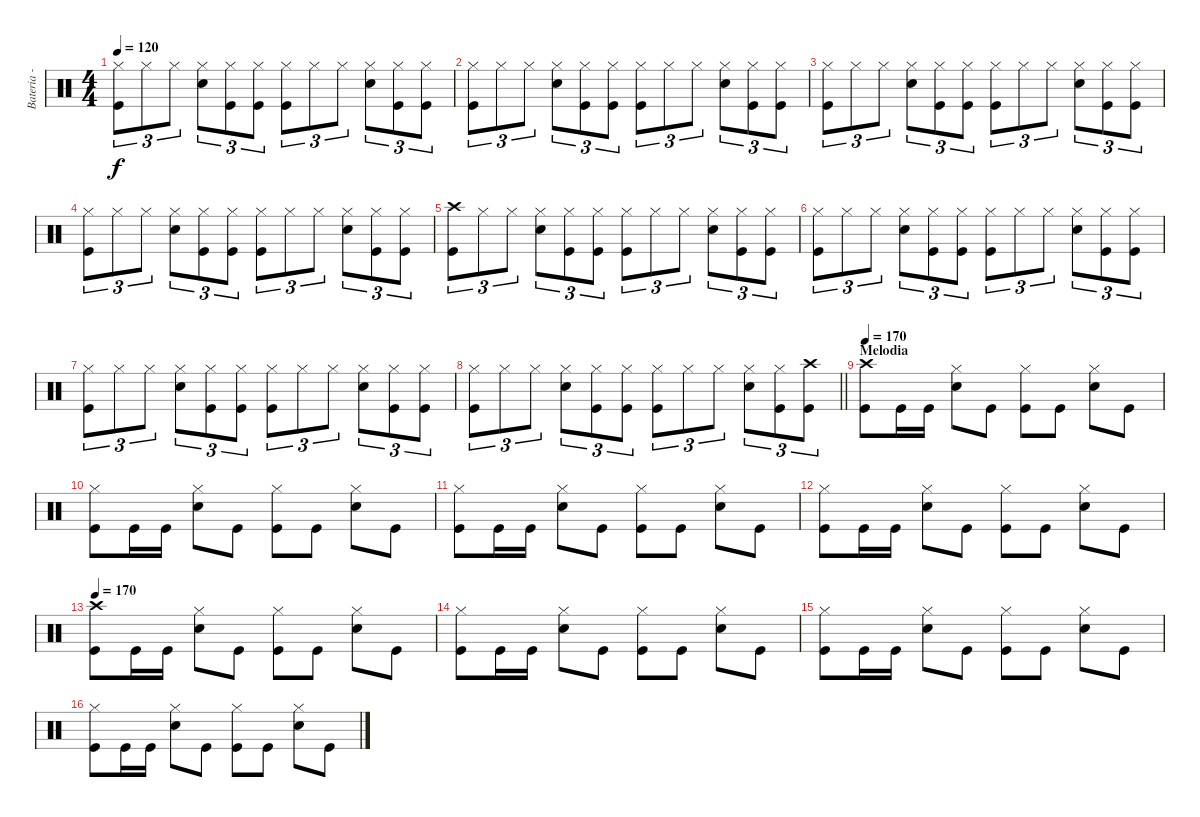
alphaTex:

\track ("Bateria - Joaquin" "Bateria - ") {instrument percussion}
\staff {score}
\articulation defaults
\ts (4 4)
\tempo 120
\clef neutral
\ks c
("Hi-Hat (closed)" "Kick (hit)").8{tu (3 2) dy f} "Hi-Hat (closed)".8{tu (3 2)} "Hi-Hat (closed)".8{tu (3 2)} ("Hi-Hat (closed)" "Snare (hit) 2").8{tu (3 2)} ("Hi-Hat (closed)" "Kick (hit)").8{tu (3 2)} ("Hi-Hat (closed)" "Kick (hit)").8{tu (3 2)} ("Hi-Hat (closed)" "Kick (hit)").8{tu (3 2)} "Hi-Hat (closed)".8{tu (3 2)} "Hi-Hat (closed)".8{tu (3 2)} ("Hi-Hat (closed)" "Snare (hit) 2").8{tu (3 2)} ("Hi-Hat (closed)" "Kick (hit)").8{tu (3 2)} ("Hi-Hat (closed)" "Kick (hit)").8{tu (3 2)} |
("Hi-Hat (closed)" "Kick (hit)").8{tu (3 2)} "Hi-Hat (closed)".8{tu (3 2)} "Hi-Hat (closed)".8{tu (3 2)} ("Hi-Hat (closed)" "Snare (hit) 2").8{tu (3 2)} ("Hi-Hat (closed)" "Kick (hit)").8{tu (3 2)} ("Hi-Hat (closed)" "Kick (hit)").8{tu (3 2)} ("Hi-Hat (closed)" "Kick (hit)").8{tu (3 2)} "Hi-Hat (closed)".8{tu (3 2)} "Hi-Hat (closed)".8{tu (3 2)} ("Hi-Hat (closed)" "Snare (hit) 2").8{tu (3 2)} ("Hi-Hat (closed)" "Kick (hit)").8{tu (3 2)} ("Hi-Hat (closed)" "Kick (hit)").8{tu (3 2)} |
("Hi-Hat (closed)" "Kick (hit)").8{tu (3 2)} "Hi-Hat (closed)".8{tu (3 2)} "Hi-Hat (closed)".8{tu (3 2)} ("Hi-Hat (closed)" "Snare (hit) 2").8{tu (3 2)} ("Hi-Hat (closed)" "Kick (hit)").8{tu (3 2)} ("Hi-Hat (closed)" "Kick (hit)").8{tu (3 2)} ("Hi-Hat (closed)" "Kick (hit)").8{tu (3 2)} "Hi-Hat (closed)".8{tu (3 2)} "Hi-Hat (closed)".8{tu (3 2)} ("Hi-Hat (closed)" "Snare (hit) 2").8{tu (3 2)} ("Hi-Hat (closed)" "Kick (hit)").8{tu (3 2)} ("Hi-Hat (closed)" "Kick (hit)").8{tu (3 2)} |
("Hi-Hat (closed)" "Kick (hit)").8{tu (3 2)} "Hi-Hat (closed)".8{tu (3 2)} "Hi-Hat (closed)".8{tu (3 2)} ("Hi-Hat (closed)" "Snare (hit) 2").8{tu (3 2)} ("Hi-Hat (closed)" "Kick (hit)").8{tu (3 2)} ("Hi-Hat (closed)" "Kick (hit)").8{tu (3 2)} ("Hi-Hat (closed)" "Kick (hit)").8{tu (3 2)} "Hi-Hat (closed)".8{tu (3 2)} "Hi-Hat (closed)".8{tu (3 2)} ("Hi-Hat (closed)" "Snare (hit) 2").8{tu (3 2)} ("Hi-Hat (closed)" "Kick (hit)").8{tu (3 2)} ("Hi-Hat (closed)" "Kick (hit)").8{tu (3 2)} |
("Crash high (hit)" "Kick (hit)").8{tu (3 2)} "Hi-Hat (closed)".8{tu (3 2)} "Hi-Hat (closed)".8{tu (3 2)} ("Hi-Hat (closed)" "Snare (hit) 2").8{tu (3 2)} ("Hi-Hat (closed)" "Kick (hit)").8{tu (3 2)} ("Hi-Hat (closed)" "Kick (hit)").8{tu (3 2)} ("Hi-Hat (closed)" "Kick (hit)").8{tu (3 2)} "Hi-Hat (closed)".8{tu (3 2)} "Hi-Hat (closed)".8{tu (3 2)} ("Hi-Hat (closed)" "Snare (hit) 2").8{tu (3 2)} ("Hi-Hat (closed)" "Kick (hit)").8{tu (3 2)} ("Hi-Hat (closed)" "Kick (hit)").8{tu (3 2)} |
("Hi-Hat (closed)" "Kick (hit)").8{tu (3 2)} "Hi-Hat (closed)".8{tu (3 2)} "Hi-Hat (closed)".8{tu (3 2)} ("Hi-Hat (closed)" "Snare (hit) 2").8{tu (3 2)} ("Hi-Hat (closed)" "Kick (hit)").8{tu (3 2)} ("Hi-Hat (closed)" "Kick (hit)").8{tu (3 2)} ("Hi-Hat (closed)" "Kick (hit)").8{tu (3 2)} "Hi-Hat (closed)".8{tu (3 2)} "Hi-Hat (closed)".8{tu (3 2)} ("Hi-Hat (closed)" "Snare (hit) 2").8{tu (3 2)} ("Hi-Hat (closed)" "Kick (hit)").8{tu (3 2)} ("Hi-Hat (closed)" "Kick (hit)").8{tu (3 2)} |
("Hi-Hat (closed)" "Kick (hit)").8{tu (3 2)} "Hi-Hat (closed)".8{tu (3 2)} "Hi-Hat (closed)".8{tu (3 2)} ("Hi-Hat (closed)" "Snare (hit) 2").8{tu (3 2)} ("Hi-Hat (closed)" "Kick (hit)").8{tu (3 2)} ("Hi-Hat (closed)" "Kick (hit)").8{tu (3 2)} ("Hi-Hat (closed)" "Kick (hit)").8{tu (3 2)} "Hi-Hat (closed)".8{tu (3 2)} "Hi-Hat (closed)".8{tu (3 2)} ("Hi-Hat (closed)" "Snare (hit) 2").8{tu (3 2)} ("Hi-Hat (closed)" "Kick (hit)").8{tu (3 2)} ("Hi-Hat (closed)" "Kick (hit)").8{tu (3 2)} |
\barLineRight lightlight
("Hi-Hat (closed)" "Kick (hit)").8{tu (3 2)} "Hi-Hat (closed)".8{tu (3 2)} "Hi-Hat (closed)".8{tu (3 2)} ("Hi-Hat (closed)" "Snare (hit) 2").8{tu (3 2)} ("Hi-Hat (closed)" "Kick (hit)").8{tu (3 2)} ("Hi-Hat (closed)" "Kick (hit)").8{tu (3 2)} ("Hi-Hat (closed)" "Kick (hit)").8{tu (3 2)} "Hi-Hat (closed)".8{tu (3 2)} "Hi-Hat (closed)".8{tu (3 2)} ("Hi-Hat (closed)" "Snare (hit) 2").8{tu (3 2)} ("Hi-Hat (closed)" "Kick (hit)").8{tu (3 2)} ("Crash high (hit)" "Kick (hit)").8{tu (3 2)} |
\section ("" "Melodia")
\tempo 170
("Crash high (hit)" "Kick (hit)").8 "Kick (hit)".16 "Kick (hit)".16 ("Hi-Hat (closed)" "Snare (hit) 2").8 "Kick (hit)".8 ("Hi-Hat (closed)" "Kick (hit)").8 "Kick (hit)".8 ("Hi-Hat (closed)" "Snare (hit) 2").8 "Kick (hit)".8 |
("Hi-Hat (closed)" "Kick (hit)").8 "Kick (hit)".16 "Kick (hit)".16 ("Hi-Hat (closed)" "Snare (hit) 2").8 "Kick (hit)".8 ("Hi-Hat (closed)" "Kick (hit)").8 "Kick (hit)".8 ("Hi-Hat (closed)" "Snare (hit) 2").8 "Kick (hit)".8 |
("Hi-Hat (closed)" "Kick (hit)").8 "Kick (hit)".16 "Kick (hit)".16 ("Hi-Hat (closed)" "Snare (hit) 2").8 "Kick (hit)".8 ("Hi-Hat (closed)" "Kick (hit)").8 "Kick (hit)".8 ("Hi-Hat (closed)" "Snare (hit) 2").8 "Kick (hit)".8 |
("Hi-Hat (closed)" "Kick (hit)").8 "Kick (hit)".16 "Kick (hit)".16 ("Hi-Hat (closed)" "Snare (hit) 2").8 "Kick (hit)".8 ("Hi-Hat (closed)" "Kick (hit)").8 "Kick (hit)".8 ("Hi-Hat (closed)" "Snare (hit) 2").8 "Kick (hit)".8 |
\tempo 170
("Crash high (hit)" "Kick (hit)").8 "Kick (hit)".16 "Kick (hit)".16 ("Hi-Hat (closed)" "Snare (hit) 2").8 "Kick (hit)".8 ("Hi-Hat (closed)" "Kick (hit)").8 "Kick (hit)".8 ("Hi-Hat (closed)" "Snare (hit) 2").8 "Kick (hit)".8 |
("Hi-Hat (closed)" "Kick (hit)").8 "Kick (hit)".16 "Kick (hit)".16 ("Hi-Hat (closed)" "Snare (hit) 2").8 "Kick (hit)".8 ("Hi-Hat (closed)" "Kick (hit)").8 "Kick (hit)".8 ("Hi-Hat (closed)" "Snare (hit) 2").8 "Kick (hit)".8 |
("Hi-Hat (closed)" "Kick (hit)").8 "Kick (hit)".16 "Kick (hit)".16 ("Hi-Hat (closed)" "Snare (hit) 2").8 "Kick (hit)".8 ("Hi-Hat (closed)" "Kick (hit)").8 "Kick (hit)".8 ("Hi-Hat (closed)" "Snare (hit) 2").8 "Kick (hit)".8 |
("Hi-Hat (closed)" "Kick (hit)").8 "Kick (hit)".16 "Kick (hit)".16 ("Hi-Hat (closed)" "Snare (hit) 2").8 "Kick (hit)".8 ("Hi-Hat (closed)" "Kick (hit)").8 "Kick (hit)".8 ("Hi-Hat (closed)" "Snare (hit) 2").8 "Kick (hit)".8
